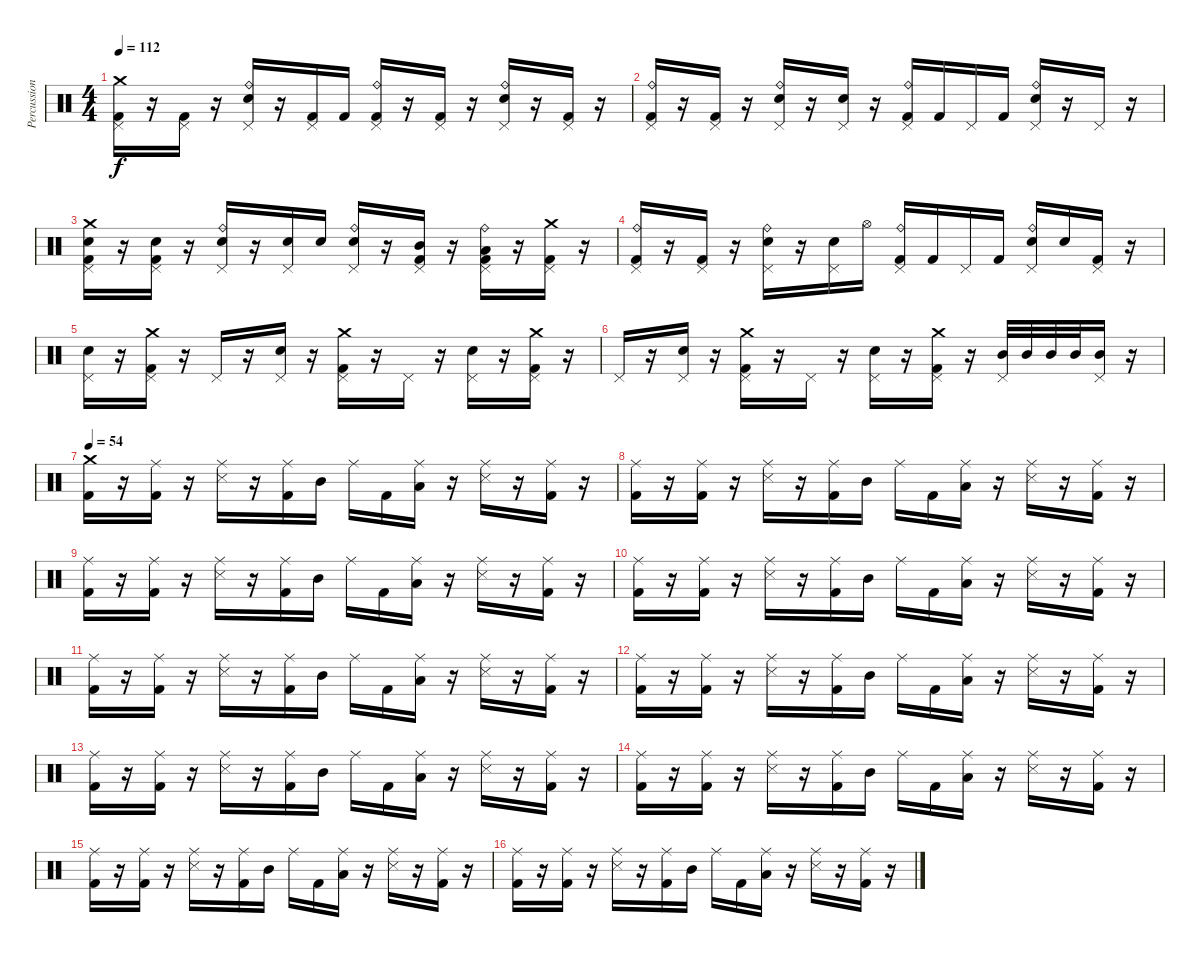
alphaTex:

\track ("Percussion" "Percussion") {instrument percussion}
\staff {score}
\articulation defaults
\ts (4 4)
\tempo 112
\clef neutral
\ks c
("Crash medium (hit)" "Pedal Hi-Hat (hit)" "Kick (hit) 2").16{dy f} r.16 ("Pedal Hi-Hat (hit)" "Kick (hit) 2").16 r.16 ("Pedal Hi-Hat (hit)" "Ride (bell)" "Snare (hit) 2").16 r.16 ("Pedal Hi-Hat (hit)" "Kick (hit) 2").16 "Kick (hit) 2".16 ("Pedal Hi-Hat (hit)" "Ride (bell)" "Kick (hit) 2").16 r.16 ("Pedal Hi-Hat (hit)" "Kick (hit) 2").16 r.16 ("Pedal Hi-Hat (hit)" "Ride (bell)" "Snare (hit) 2").16 r.16 ("Pedal Hi-Hat (hit)" "Kick (hit) 2").16 r.16 |
("Pedal Hi-Hat (hit)" "Ride (bell)" "Kick (hit) 2").16 r.16 ("Pedal Hi-Hat (hit)" "Kick (hit) 2").16 r.16 ("Pedal Hi-Hat (hit)" "Ride (bell)" "Snare (hit) 2").16 r.16 ("Pedal Hi-Hat (hit)" "Snare (hit) 2").16 r.16 ("Pedal Hi-Hat (hit)" "Ride (bell)" "Kick (hit) 2").16 "Kick (hit) 2".16 "Pedal Hi-Hat (hit)".16 "Kick (hit) 2".16 ("Pedal Hi-Hat (hit)" "Ride (bell)" "Snare (hit) 2").16 r.16 "Pedal Hi-Hat (hit)".16 r.16 |
("Crash medium (hit)" "Pedal Hi-Hat (hit)" "Snare (hit) 2" "Kick (hit) 2").16 r.16 ("Pedal Hi-Hat (hit)" "Snare (hit) 2" "Kick (hit) 2").16 r.16 ("Ride (bell)" "Pedal Hi-Hat (hit)" "Snare (hit) 2").16 r.16 ("Pedal Hi-Hat (hit)" "Snare (hit) 2").16 "Snare (hit) 2".16 ("Ride (bell)" "Pedal Hi-Hat (hit)" "Snare (hit) 2").16 r.16 ("Pedal Hi-Hat (hit)" "Mid Tom (hit)" "Kick (hit) 2").16 r.16 ("Ride (bell)" "Pedal Hi-Hat (hit)" "Low Tom (hit)" "Kick (hit) 2").16 r.16 ("Crash medium (hit)" "Pedal Hi-Hat (hit)" "Kick (hit) 2").16 r.16 |
("Pedal Hi-Hat (hit)" "Ride (bell)" "Kick (hit) 2").16 r.16 ("Pedal Hi-Hat (hit)" "Kick (hit) 2").16 r.16 ("Pedal Hi-Hat (hit)" "Ride (bell)" "Snare (hit) 2").16 r.16 ("Pedal Hi-Hat (hit)" "Snare (hit) 2").16 "Hi-Hat (open)".16 ("Pedal Hi-Hat (hit)" "Ride (bell)" "Kick (hit) 2").16 "Kick (hit) 2".16 "Pedal Hi-Hat (hit)".16 "Kick (hit) 2".16 ("Pedal Hi-Hat (hit)" "Ride (bell)" "Snare (hit) 2").16 "Snare (hit) 2".16 ("Pedal Hi-Hat (hit)" "Kick (hit) 2").16 r.16 |
("Pedal Hi-Hat (hit)" "Snare (hit) 2").16 r.16 ("Crash medium (hit)" "Pedal Hi-Hat (hit)" "Kick (hit) 2").16 r.16 "Pedal Hi-Hat (hit)".16 r.16 ("Pedal Hi-Hat (hit)" "Snare (hit) 2").16 r.16 ("Crash medium (hit)" "Pedal Hi-Hat (hit)" "Kick (hit) 2").16 r.16 "Pedal Hi-Hat (hit)".16 r.16 ("Pedal Hi-Hat (hit)" "Snare (hit) 2").16 r.16 ("Crash medium (hit)" "Pedal Hi-Hat (hit)" "Kick (hit) 2").16 r.16 |
"Pedal Hi-Hat (hit)".16 r.16 ("Pedal Hi-Hat (hit)" "Snare (hit) 2").16 r.16 ("Crash medium (hit)" "Pedal Hi-Hat (hit)" "Kick (hit) 2").16 r.16 "Pedal Hi-Hat (hit)".16 r.16 ("Pedal Hi-Hat (hit)" "Snare (hit) 2").16 r.16 ("Crash medium (hit)" "Pedal Hi-Hat (hit)" "Kick (hit) 2").16 r.16 ("Pedal Hi-Hat (hit)" "Mid Tom (hit)").32 "Mid Tom (hit)".32 "Mid Tom (hit)".32 "Mid Tom (hit)".32 ("Pedal Hi-Hat (hit)" "Mid Tom (hit)").16 r.16 |
\tempo 54
("Crash medium (hit)" "Kick (hit) 2").16{volume 9} r.16 ("Ride (middle)" "Kick (hit) 2").16 r.16 ("Ride (middle)" "Snare (side stick) 3").16 r.16 ("Ride (middle)" "Kick (hit) 2").16 "Mid Tom (hit)".16 "Ride (middle)".16 "Kick (hit) 2".16 ("Ride (middle)" "Low Tom (hit)").16 r.16 ("Ride (middle)" "Snare (side stick) 3").16 r.16 ("Ride (middle)" "Kick (hit) 2").16 r.16 |
("Ride (middle)" "Kick (hit) 2").16 r.16 ("Ride (middle)" "Kick (hit) 2").16 r.16 ("Ride (middle)" "Snare (side stick) 3").16 r.16 ("Ride (middle)" "Kick (hit) 2").16 "Mid Tom (hit)".16 "Ride (middle)".16 "Kick (hit) 2".16 ("Ride (middle)" "Low Tom (hit)").16 r.16 ("Ride (middle)" "Snare (side stick) 3").16 r.16 ("Ride (middle)" "Kick (hit) 2").16 r.16 |
("Ride (middle)" "Kick (hit) 2").16 r.16 ("Ride (middle)" "Kick (hit) 2").16 r.16 ("Ride (middle)" "Snare (side stick) 3").16 r.16 ("Ride (middle)" "Kick (hit) 2").16 "Mid Tom (hit)".16 "Ride (middle)".16 "Kick (hit) 2".16 ("Ride (middle)" "Low Tom (hit)").16 r.16 ("Ride (middle)" "Snare (side stick) 3").16 r.16 ("Ride (middle)" "Kick (hit) 2").16 r.16 |
("Ride (middle)" "Kick (hit) 2").16 r.16 ("Ride (middle)" "Kick (hit) 2").16 r.16 ("Ride (middle)" "Snare (side stick) 3").16 r.16 ("Ride (middle)" "Kick (hit) 2").16 "Mid Tom (hit)".16 "Ride (middle)".16 "Kick (hit) 2".16 ("Ride (middle)" "Low Tom (hit)").16 r.16 ("Ride (middle)" "Snare (side stick) 3").16 r.16 ("Ride (middle)" "Kick (hit) 2").16 r.16 |
("Ride (middle)" "Kick (hit) 2").16 r.16 ("Ride (middle)" "Kick (hit) 2").16 r.16 ("Ride (middle)" "Snare (side stick) 3").16 r.16 ("Ride (middle)" "Kick (hit) 2").16 "Mid Tom (hit)".16 "Ride (middle)".16 "Kick (hit) 2".16 ("Ride (middle)" "Low Tom (hit)").16 r.16 ("Ride (middle)" "Snare (side stick) 3").16 r.16 ("Ride (middle)" "Kick (hit) 2").16 r.16 |
("Ride (middle)" "Kick (hit) 2").16 r.16 ("Ride (middle)" "Kick (hit) 2").16 r.16 ("Ride (middle)" "Snare (side stick) 3").16 r.16 ("Ride (middle)" "Kick (hit) 2").16 "Mid Tom (hit)".16 "Ride (middle)".16 "Kick (hit) 2".16 ("Ride (middle)" "Low Tom (hit)").16 r.16 ("Ride (middle)" "Snare (side stick) 3").16 r.16 ("Ride (middle)" "Kick (hit) 2").16 r.16 |
("Ride (middle)" "Kick (hit) 2").16 r.16 ("Ride (middle)" "Kick (hit) 2").16 r.16 ("Ride (middle)" "Snare (side stick) 3").16 r.16 ("Ride (middle)" "Kick (hit) 2").16 "Mid Tom (hit)".16 "Ride (middle)".16 "Kick (hit) 2".16 ("Ride (middle)" "Low Tom (hit)").16 r.16 ("Ride (middle)" "Snare (side stick) 3").16 r.16 ("Ride (middle)" "Kick (hit) 2").16 r.16 |
("Ride (middle)" "Kick (hit) 2").16 r.16 ("Ride (middle)" "Kick (hit) 2").16 r.16 ("Ride (middle)" "Snare (side stick) 3").16 r.16 ("Ride (middle)" "Kick (hit) 2").16 "Mid Tom (hit)".16 "Ride (middle)".16 "Kick (hit) 2".16 ("Ride (middle)" "Low Tom (hit)").16 r.16 ("Ride (middle)" "Snare (side stick) 3").16 r.16 ("Ride (middle)" "Kick (hit) 2").16 r.16 |
("Ride (middle)" "Kick (hit) 2").16 r.16 ("Ride (middle)" "Kick (hit) 2").16 r.16 ("Ride (middle)" "Snare (side stick) 3").16 r.16 ("Ride (middle)" "Kick (hit) 2").16 "Mid Tom (hit)".16 "Ride (middle)".16 "Kick (hit) 2".16 ("Ride (middle)" "Low Tom (hit)").16 r.16 ("Ride (middle)" "Snare (side stick) 3").16 r.16 ("Ride (middle)" "Kick (hit) 2").16 r.16 |
("Ride (middle)" "Kick (hit) 2").16 r.16 ("Ride (middle)" "Kick (hit) 2").16 r.16 ("Ride (middle)" "Snare (side stick) 3").16 r.16 ("Ride (middle)" "Kick (hit) 2").16 "Mid Tom (hit)".16 "Ride (middle)".16 "Kick (hit) 2".16 ("Ride (middle)" "Low Tom (hit)").16 r.16 ("Ride (middle)" "Snare (side stick) 3").16 r.16 ("Ride (middle)" "Kick (hit) 2").16 r.16
